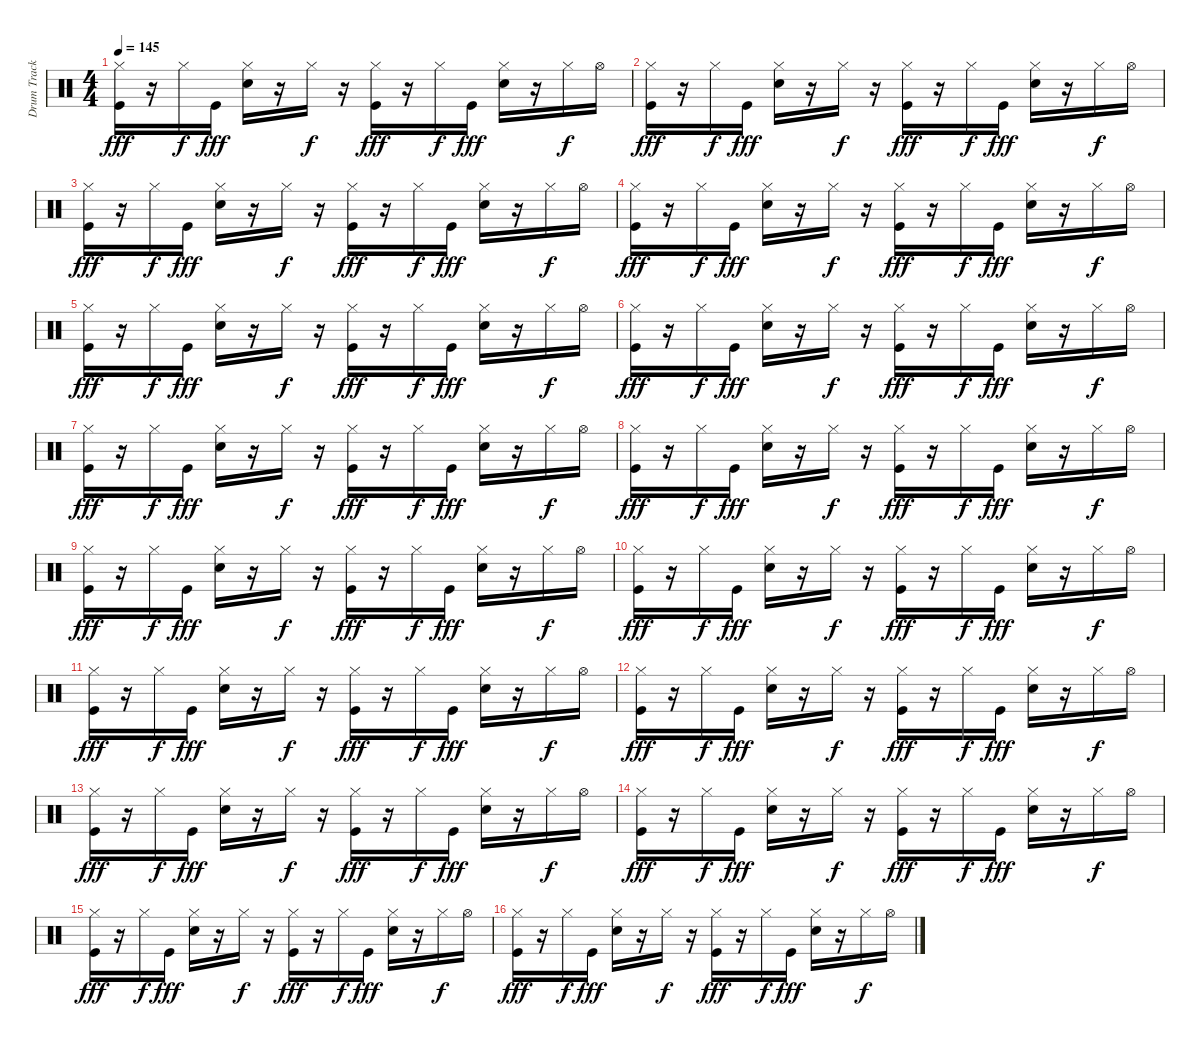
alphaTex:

\track ("Drum Track" "Drum Track") {instrument percussion}
\staff {score}
\articulation defaults
\ts (4 4)
\tempo 145
\clef neutral
\ks c
("Kick (hit)" "Hi-Hat (closed)").16{dy fff} r.16 "Hi-Hat (closed)".16{dy f} "Kick (hit)".16{dy fff} ("Hi-Hat (closed)" "Snare (hit) 2").16 r.16 "Hi-Hat (closed)".16{dy f} r.16 ("Kick (hit)" "Hi-Hat (closed)").16{dy fff} r.16 "Hi-Hat (closed)".16{dy f} "Kick (hit)".16{dy fff} ("Hi-Hat (closed)" "Snare (hit) 2").16 r.16 "Hi-Hat (closed)".16{dy f} "Hi-Hat (open)".16 |
("Kick (hit)" "Hi-Hat (closed)").16{dy fff} r.16 "Hi-Hat (closed)".16{dy f} "Kick (hit)".16{dy fff} ("Hi-Hat (closed)" "Snare (hit) 2").16 r.16 "Hi-Hat (closed)".16{dy f} r.16 ("Kick (hit)" "Hi-Hat (closed)").16{dy fff} r.16 "Hi-Hat (closed)".16{dy f} "Kick (hit)".16{dy fff} ("Hi-Hat (closed)" "Snare (hit) 2").16 r.16 "Hi-Hat (closed)".16{dy f} "Hi-Hat (open)".16 |
("Kick (hit)" "Hi-Hat (closed)").16{dy fff} r.16 "Hi-Hat (closed)".16{dy f} "Kick (hit)".16{dy fff} ("Hi-Hat (closed)" "Snare (hit) 2").16 r.16 "Hi-Hat (closed)".16{dy f} r.16 ("Kick (hit)" "Hi-Hat (closed)").16{dy fff} r.16 "Hi-Hat (closed)".16{dy f} "Kick (hit)".16{dy fff} ("Hi-Hat (closed)" "Snare (hit) 2").16 r.16 "Hi-Hat (closed)".16{dy f} "Hi-Hat (open)".16 |
("Kick (hit)" "Hi-Hat (closed)").16{dy fff} r.16 "Hi-Hat (closed)".16{dy f} "Kick (hit)".16{dy fff} ("Hi-Hat (closed)" "Snare (hit) 2").16 r.16 "Hi-Hat (closed)".16{dy f} r.16 ("Kick (hit)" "Hi-Hat (closed)").16{dy fff} r.16 "Hi-Hat (closed)".16{dy f} "Kick (hit)".16{dy fff} ("Hi-Hat (closed)" "Snare (hit) 2").16 r.16 "Hi-Hat (closed)".16{dy f} "Hi-Hat (open)".16 |
("Kick (hit)" "Hi-Hat (closed)").16{dy fff} r.16 "Hi-Hat (closed)".16{dy f} "Kick (hit)".16{dy fff} ("Hi-Hat (closed)" "Snare (hit) 2").16 r.16 "Hi-Hat (closed)".16{dy f} r.16 ("Kick (hit)" "Hi-Hat (closed)").16{dy fff} r.16 "Hi-Hat (closed)".16{dy f} "Kick (hit)".16{dy fff} ("Hi-Hat (closed)" "Snare (hit) 2").16 r.16 "Hi-Hat (closed)".16{dy f} "Hi-Hat (open)".16 |
("Kick (hit)" "Hi-Hat (closed)").16{dy fff} r.16 "Hi-Hat (closed)".16{dy f} "Kick (hit)".16{dy fff} ("Hi-Hat (closed)" "Snare (hit) 2").16 r.16 "Hi-Hat (closed)".16{dy f} r.16 ("Kick (hit)" "Hi-Hat (closed)").16{dy fff} r.16 "Hi-Hat (closed)".16{dy f} "Kick (hit)".16{dy fff} ("Hi-Hat (closed)" "Snare (hit) 2").16 r.16 "Hi-Hat (closed)".16{dy f} "Hi-Hat (open)".16 |
("Kick (hit)" "Hi-Hat (closed)").16{dy fff} r.16 "Hi-Hat (closed)".16{dy f} "Kick (hit)".16{dy fff} ("Hi-Hat (closed)" "Snare (hit) 2").16 r.16 "Hi-Hat (closed)".16{dy f} r.16 ("Kick (hit)" "Hi-Hat (closed)").16{dy fff} r.16 "Hi-Hat (closed)".16{dy f} "Kick (hit)".16{dy fff} ("Hi-Hat (closed)" "Snare (hit) 2").16 r.16 "Hi-Hat (closed)".16{dy f} "Hi-Hat (open)".16 |
("Kick (hit)" "Hi-Hat (closed)").16{dy fff} r.16 "Hi-Hat (closed)".16{dy f} "Kick (hit)".16{dy fff} ("Hi-Hat (closed)" "Snare (hit) 2").16 r.16 "Hi-Hat (closed)".16{dy f} r.16 ("Kick (hit)" "Hi-Hat (closed)").16{dy fff} r.16 "Hi-Hat (closed)".16{dy f} "Kick (hit)".16{dy fff} ("Hi-Hat (closed)" "Snare (hit) 2").16 r.16 "Hi-Hat (closed)".16{dy f} "Hi-Hat (open)".16 |
("Kick (hit)" "Hi-Hat (closed)").16{dy fff} r.16 "Hi-Hat (closed)".16{dy f} "Kick (hit)".16{dy fff} ("Hi-Hat (closed)" "Snare (hit) 2").16 r.16 "Hi-Hat (closed)".16{dy f} r.16 ("Kick (hit)" "Hi-Hat (closed)").16{dy fff} r.16 "Hi-Hat (closed)".16{dy f} "Kick (hit)".16{dy fff} ("Hi-Hat (closed)" "Snare (hit) 2").16 r.16 "Hi-Hat (closed)".16{dy f} "Hi-Hat (open)".16 |
("Kick (hit)" "Hi-Hat (closed)").16{dy fff} r.16 "Hi-Hat (closed)".16{dy f} "Kick (hit)".16{dy fff} ("Hi-Hat (closed)" "Snare (hit) 2").16 r.16 "Hi-Hat (closed)".16{dy f} r.16 ("Kick (hit)" "Hi-Hat (closed)").16{dy fff} r.16 "Hi-Hat (closed)".16{dy f} "Kick (hit)".16{dy fff} ("Hi-Hat (closed)" "Snare (hit) 2").16 r.16 "Hi-Hat (closed)".16{dy f} "Hi-Hat (open)".16 |
("Kick (hit)" "Hi-Hat (closed)").16{dy fff} r.16 "Hi-Hat (closed)".16{dy f} "Kick (hit)".16{dy fff} ("Hi-Hat (closed)" "Snare (hit) 2").16 r.16 "Hi-Hat (closed)".16{dy f} r.16 ("Kick (hit)" "Hi-Hat (closed)").16{dy fff} r.16 "Hi-Hat (closed)".16{dy f} "Kick (hit)".16{dy fff} ("Hi-Hat (closed)" "Snare (hit) 2").16 r.16 "Hi-Hat (closed)".16{dy f} "Hi-Hat (open)".16 |
("Kick (hit)" "Hi-Hat (closed)").16{dy fff} r.16 "Hi-Hat (closed)".16{dy f} "Kick (hit)".16{dy fff} ("Hi-Hat (closed)" "Snare (hit) 2").16 r.16 "Hi-Hat (closed)".16{dy f} r.16 ("Kick (hit)" "Hi-Hat (closed)").16{dy fff} r.16 "Hi-Hat (closed)".16{dy f} "Kick (hit)".16{dy fff} ("Hi-Hat (closed)" "Snare (hit) 2").16 r.16 "Hi-Hat (closed)".16{dy f} "Hi-Hat (open)".16 |
("Kick (hit)" "Hi-Hat (closed)").16{dy fff} r.16 "Hi-Hat (closed)".16{dy f} "Kick (hit)".16{dy fff} ("Hi-Hat (closed)" "Snare (hit) 2").16 r.16 "Hi-Hat (closed)".16{dy f} r.16 ("Kick (hit)" "Hi-Hat (closed)").16{dy fff} r.16 "Hi-Hat (closed)".16{dy f} "Kick (hit)".16{dy fff} ("Hi-Hat (closed)" "Snare (hit) 2").16 r.16 "Hi-Hat (closed)".16{dy f} "Hi-Hat (open)".16 |
("Kick (hit)" "Hi-Hat (closed)").16{dy fff} r.16 "Hi-Hat (closed)".16{dy f} "Kick (hit)".16{dy fff} ("Hi-Hat (closed)" "Snare (hit) 2").16 r.16 "Hi-Hat (closed)".16{dy f} r.16 ("Kick (hit)" "Hi-Hat (closed)").16{dy fff} r.16 "Hi-Hat (closed)".16{dy f} "Kick (hit)".16{dy fff} ("Hi-Hat (closed)" "Snare (hit) 2").16 r.16 "Hi-Hat (closed)".16{dy f} "Hi-Hat (open)".16 |
("Kick (hit)" "Hi-Hat (closed)").16{dy fff} r.16 "Hi-Hat (closed)".16{dy f} "Kick (hit)".16{dy fff} ("Hi-Hat (closed)" "Snare (hit) 2").16 r.16 "Hi-Hat (closed)".16{dy f} r.16 ("Kick (hit)" "Hi-Hat (closed)").16{dy fff} r.16 "Hi-Hat (closed)".16{dy f} "Kick (hit)".16{dy fff} ("Hi-Hat (closed)" "Snare (hit) 2").16 r.16 "Hi-Hat (closed)".16{dy f} "Hi-Hat (open)".16 |
("Kick (hit)" "Hi-Hat (closed)").16{dy fff} r.16 "Hi-Hat (closed)".16{dy f} "Kick (hit)".16{dy fff} ("Hi-Hat (closed)" "Snare (hit) 2").16 r.16 "Hi-Hat (closed)".16{dy f} r.16 ("Kick (hit)" "Hi-Hat (closed)").16{dy fff} r.16 "Hi-Hat (closed)".16{dy f} "Kick (hit)".16{dy fff} ("Hi-Hat (closed)" "Snare (hit) 2").16 r.16 "Hi-Hat (closed)".16{dy f} "Hi-Hat (open)".16
